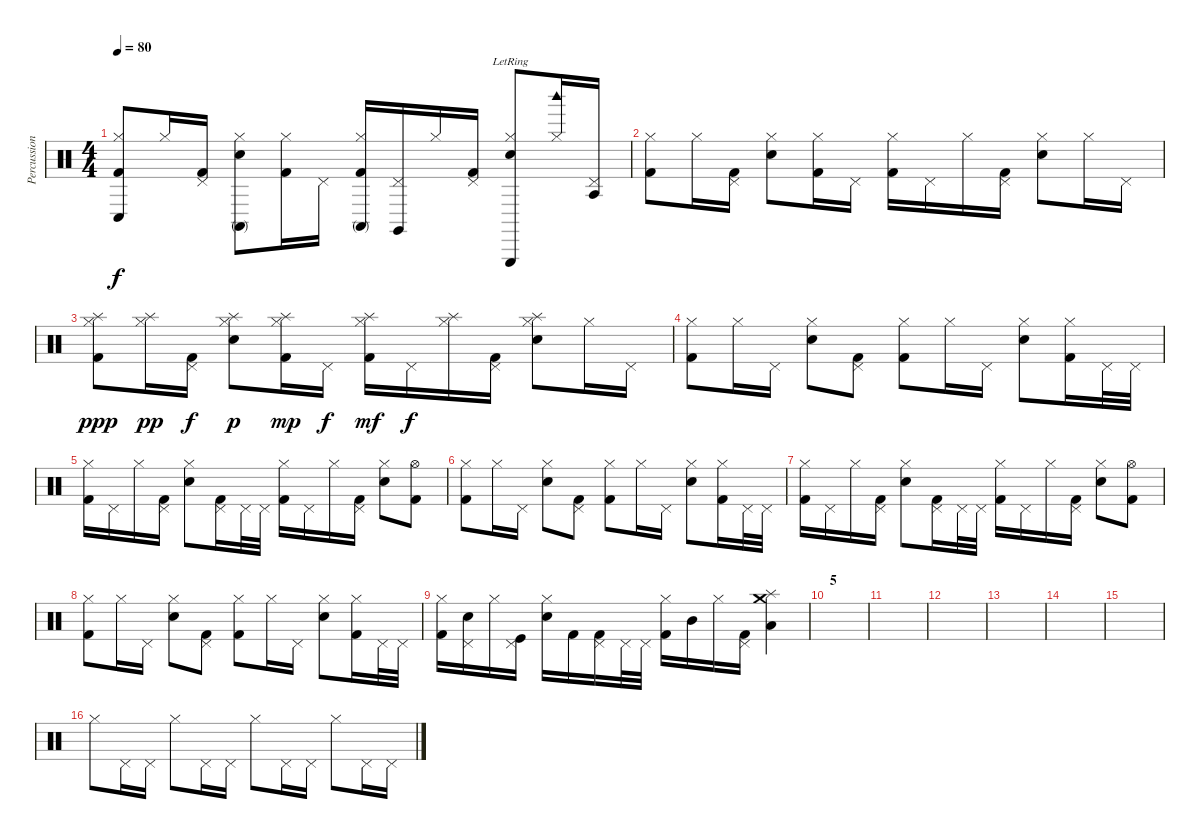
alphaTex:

\track ("Percussion" "Percussion") {instrument percussion}
\staff {score}
\articulation defaults
\ts (4 4)
\tempo 80
\clef neutral
\ks c
("Conga low (hit)" "Kick (hit) 2" "Hi-Hat (closed)").8{dy f} "Hi-Hat (closed)".16 ("Kick (hit) 2" "Pedal Hi-Hat (hit)").16 ("Conga high (mute)" "Snare (hit) 2" "Hi-Hat (closed)").8 ("Kick (hit) 2" "Hi-Hat (closed)").16 "Pedal Hi-Hat (hit)".16 ("Conga high (mute)" "Kick (hit) 2" "Hi-Hat (closed)").16 ("Claves (hit)" "Pedal Hi-Hat (hit)").16 "Hi-Hat (closed)".16 ("Kick (hit) 2" "Pedal Hi-Hat (hit)").16 ("Triangle (hit)"{lr} "Snare (hit) 2" "Hi-Hat (closed)").8 ("Woodblock high (hit)" "Hi-Hat (closed)").16 ("Agogo tow (hit)" "Pedal Hi-Hat (hit)").16 |
("Kick (hit) 2" "Hi-Hat (closed)").8 "Hi-Hat (closed)".16 ("Kick (hit) 2" "Pedal Hi-Hat (hit)").16 ("Snare (hit) 2" "Hi-Hat (closed)").8 ("Kick (hit) 2" "Hi-Hat (closed)").16 "Pedal Hi-Hat (hit)".16 ("Kick (hit) 2" "Hi-Hat (closed)").16 "Pedal Hi-Hat (hit)".16 "Hi-Hat (closed)".16 ("Kick (hit) 2" "Pedal Hi-Hat (hit)").16 ("Snare (hit) 2" "Hi-Hat (closed)").8 "Hi-Hat (closed)".16 "Pedal Hi-Hat (hit)".16 |
("Splash (hit)" "Kick (hit) 2" "Hi-Hat (closed)").8{dy ppp} ("Splash (hit)" "Hi-Hat (closed)").16{dy pp} ("Kick (hit) 2" "Pedal Hi-Hat (hit)").16{dy f} ("Splash (hit)" "Snare (hit) 2" "Hi-Hat (closed)").8{dy p} ("Splash (hit)" "Kick (hit) 2" "Hi-Hat (closed)").16{dy mp} "Pedal Hi-Hat (hit)".16{dy f} ("Splash (hit)" "Kick (hit) 2" "Hi-Hat (closed)").16{dy mf} "Pedal Hi-Hat (hit)".16{dy f} ("Splash (hit)" "Hi-Hat (closed)").16 ("Kick (hit) 2" "Pedal Hi-Hat (hit)").16 ("Splash (hit)" "Snare (hit) 2" "Hi-Hat (closed)").8 "Hi-Hat (closed)".16 "Pedal Hi-Hat (hit)".16 |
("Kick (hit) 2" "Hi-Hat (closed)").8 "Hi-Hat (closed)".16 "Pedal Hi-Hat (hit)".16 ("Snare (hit) 2" "Hi-Hat (closed)").8 ("Kick (hit) 2" "Pedal Hi-Hat (hit)").8 ("Kick (hit) 2" "Hi-Hat (closed)").8 "Hi-Hat (closed)".16 "Pedal Hi-Hat (hit)".16 ("Snare (hit) 2" "Hi-Hat (closed)").8 ("Kick (hit) 2" "Hi-Hat (closed)").16 "Pedal Hi-Hat (hit)".32 "Pedal Hi-Hat (hit)".32 |
("Kick (hit) 2" "Hi-Hat (closed)").16 "Pedal Hi-Hat (hit)".16 "Hi-Hat (closed)".16 ("Kick (hit) 2" "Pedal Hi-Hat (hit)").16 ("Snare (hit) 2" "Hi-Hat (closed)").8 ("Kick (hit) 2" "Pedal Hi-Hat (hit)").16 "Pedal Hi-Hat (hit)".32 "Pedal Hi-Hat (hit)".32 ("Kick (hit) 2" "Hi-Hat (closed)").16 "Pedal Hi-Hat (hit)".16 "Hi-Hat (closed)".16 ("Kick (hit) 2" "Pedal Hi-Hat (hit)").16 ("Snare (hit) 2" "Hi-Hat (closed)").8 ("Kick (hit) 2" "Hi-Hat (open)").8 |
("Kick (hit) 2" "Hi-Hat (closed)").8 "Hi-Hat (closed)".16 "Pedal Hi-Hat (hit)".16 ("Snare (hit) 2" "Hi-Hat (closed)").8 ("Kick (hit) 2" "Pedal Hi-Hat (hit)").8 ("Kick (hit) 2" "Hi-Hat (closed)").8 "Hi-Hat (closed)".16 "Pedal Hi-Hat (hit)".16 ("Snare (hit) 2" "Hi-Hat (closed)").8 ("Kick (hit) 2" "Hi-Hat (closed)").16 "Pedal Hi-Hat (hit)".32 "Pedal Hi-Hat (hit)".32 |
("Kick (hit) 2" "Hi-Hat (closed)").16 "Pedal Hi-Hat (hit)".16 "Hi-Hat (closed)".16 ("Kick (hit) 2" "Pedal Hi-Hat (hit)").16 ("Snare (hit) 2" "Hi-Hat (closed)").8 ("Kick (hit) 2" "Pedal Hi-Hat (hit)").16 "Pedal Hi-Hat (hit)".32 "Pedal Hi-Hat (hit)".32 ("Kick (hit) 2" "Hi-Hat (closed)").16 "Pedal Hi-Hat (hit)".16 "Hi-Hat (closed)".16 ("Kick (hit) 2" "Pedal Hi-Hat (hit)").16 ("Snare (hit) 2" "Hi-Hat (closed)").8 ("Kick (hit) 2" "Hi-Hat (open)").8 |
("Kick (hit) 2" "Hi-Hat (closed)").8 "Hi-Hat (closed)".16 "Pedal Hi-Hat (hit)".16 ("Snare (hit) 2" "Hi-Hat (closed)").8 ("Kick (hit) 2" "Pedal Hi-Hat (hit)").8 ("Kick (hit) 2" "Hi-Hat (closed)").8 "Hi-Hat (closed)".16 "Pedal Hi-Hat (hit)".16 ("Snare (hit) 2" "Hi-Hat (closed)").8 ("Kick (hit) 2" "Hi-Hat (closed)").16 "Pedal Hi-Hat (hit)".32 "Pedal Hi-Hat (hit)".32 |
("Kick (hit) 2" "Hi-Hat (closed)").16 ("Snare (hit) 2" "Pedal Hi-Hat (hit)").16 "Hi-Hat (closed)".16 ("Kick (hit)" "Pedal Hi-Hat (hit)").16 ("Snare (hit) 2" "Hi-Hat (closed)").16 "Kick (hit) 2".16 ("Kick (hit) 2" "Pedal Hi-Hat (hit)").16 "Pedal Hi-Hat (hit)".32 "Pedal Hi-Hat (hit)".32 ("Kick (hit) 2" "Hi-Hat (closed)").16 "Mid Tom (hit)".16 "Hi-Hat (closed)".16 ("Kick (hit) 2" "Pedal Hi-Hat (hit)").16 ("Crash medium (hit)" "Splash (hit)" "Low Tom (hit)").4 |
\section ("" "5")
|
|
|
|
|
|
"Hi-Hat (closed)".8 "Pedal Hi-Hat (hit)".16 "Pedal Hi-Hat (hit)".16 "Hi-Hat (closed)".8 "Pedal Hi-Hat (hit)".16 "Pedal Hi-Hat (hit)".16 "Hi-Hat (closed)".8 "Pedal Hi-Hat (hit)".16 "Pedal Hi-Hat (hit)".16 "Hi-Hat (closed)".8 "Pedal Hi-Hat (hit)".16 "Pedal Hi-Hat (hit)".16
